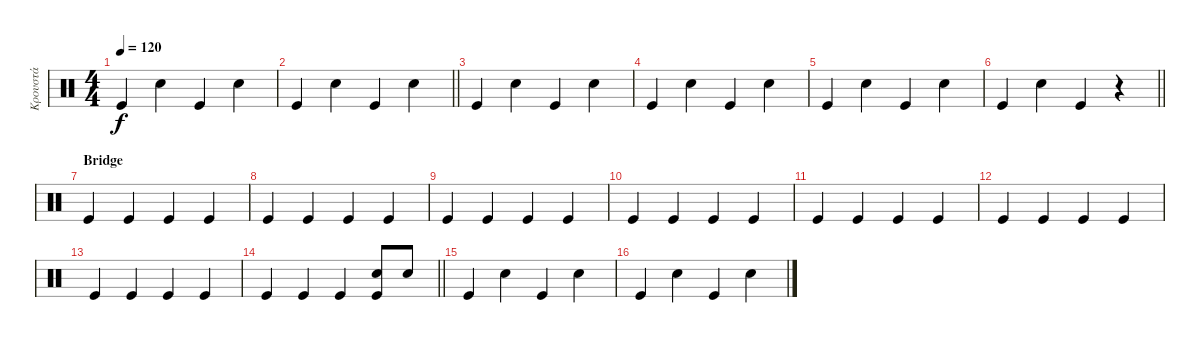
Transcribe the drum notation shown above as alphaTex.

\track ("Κρουστά" "Κρουστά") {instrument percussion}
\staff {score}
\articulation defaults
\ts (4 4)
\tempo 120
\clef neutral
\ks c "Kick (hit)".4{dy f} "Hand Clap (hit)".4 "Kick (hit)".4 "Hand Clap (hit)".4
|
\barLineRight lightlight "Kick (hit)".4 "Hand Clap (hit)".4 "Kick (hit)".4 "Hand Clap (hit)".4
|
"Kick (hit)".4 "Hand Clap (hit)".4 "Kick (hit)".4 "Hand Clap (hit)".4 |
"Kick (hit)".4 "Hand Clap (hit)".4 "Kick (hit)".4 "Hand Clap (hit)".4 |
"Kick (hit)".4 "Hand Clap (hit)".4 "Kick (hit)".4 "Hand Clap (hit)".4 |
\barLineRight lightlight "Kick (hit)".4 "Hand Clap (hit)".4 "Kick (hit)".4
r.4 |
\section ("" "Bridge")
"Kick (hit)".4 "Kick (hit)".4 "Kick (hit)".4 "Kick (hit)".4 |
"Kick (hit)".4 "Kick (hit)".4 "Kick (hit)".4 "Kick (hit)".4 |
"Kick (hit)".4 "Kick (hit)".4 "Kick (hit)".4 "Kick (hit)".4 |
"Kick (hit)".4 "Kick (hit)".4 "Kick (hit)".4 "Kick (hit)".4 |
"Kick (hit)".4 "Kick (hit)".4 "Kick (hit)".4 "Kick (hit)".4 |
"Kick (hit)".4 "Kick (hit)".4 "Kick (hit)".4 "Kick (hit)".4 |
"Kick (hit)".4 "Kick (hit)".4 "Kick (hit)".4 "Kick (hit)".4 |
\barLineRight lightlight "Kick (hit)".4 "Kick (hit)".4 "Kick (hit)".4
("Kick (hit)" "Hand Clap (hit)").8 "Hand Clap (hit)".8 |
"Kick (hit)".4 "Hand Clap (hit)".4 "Kick (hit)".4 "Hand Clap (hit)".4 |
"Kick (hit)".4 "Hand Clap (hit)".4 "Kick (hit)".4 "Hand Clap (hit)".4
